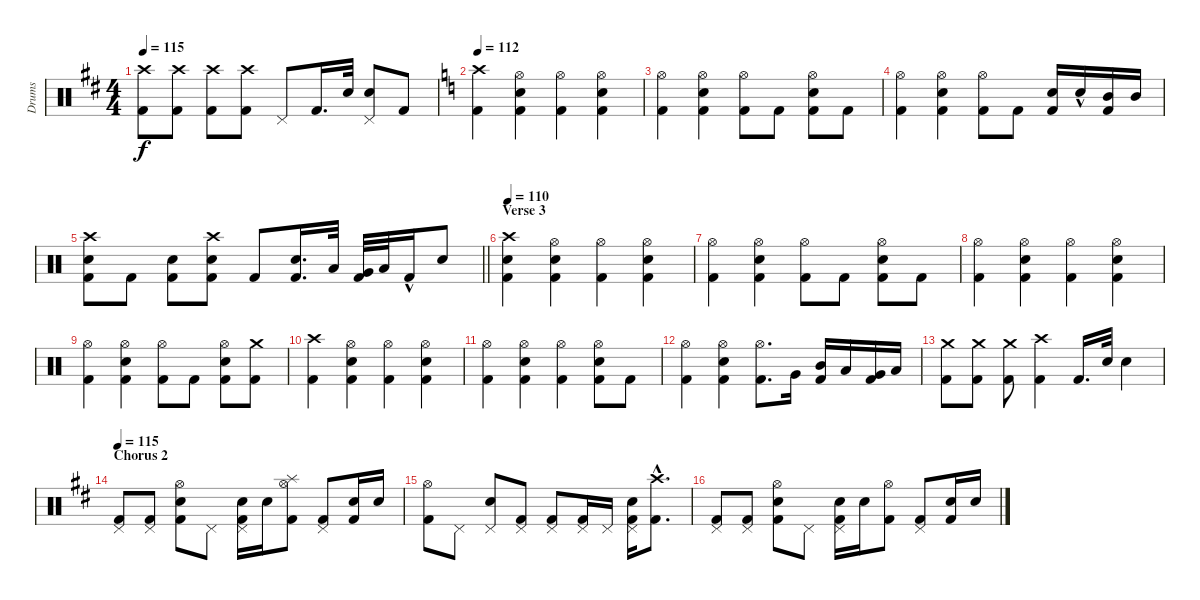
\track ("Drums" "Drums") {instrument percussion}
\staff {score}
\articulation defaults
\ts (4 4)
\tempo 115
\clef neutral
\ks d
("Crash high (hit)" "Kick (hit) 2").8{dy f} ("Kick (hit) 2" "Crash high (hit)").8 ("Kick (hit) 2" "Crash high (hit)").8 ("Kick (hit) 2" "Crash high (hit)").8 "Pedal Hi-Hat (hit)".8 "Kick (hit) 2".16{d} "Snare (hit) 2".32 ("Pedal Hi-Hat (hit)" "Snare (hit) 2").8 "Kick (hit) 2".8 |
\tempo 112
\ks c
("Kick (hit) 2" "Crash high (hit)").4 ("Snare (hit) 2" "Hi-Hat (open)" "Kick (hit) 2").4 ("Hi-Hat (open)" "Kick (hit) 2").4 ("Snare (hit) 2" "Hi-Hat (open)" "Kick (hit) 2").4 |
("Hi-Hat (open)" "Kick (hit) 2").4 ("Hi-Hat (open)" "Snare (hit) 2" "Kick (hit) 2").4 ("Hi-Hat (open)" "Kick (hit) 2").8 "Kick (hit) 2".8 ("Snare (hit) 2" "Hi-Hat (open)" "Kick (hit) 2").8 "Kick (hit) 2".8 |
("Hi-Hat (open)" "Kick (hit) 2").4 ("Hi-Hat (open)" "Kick (hit) 2" "Snare (hit) 2").4 ("Hi-Hat (open)" "Kick (hit) 2").8 "Kick (hit) 2".8 ("Kick (hit) 2" "Snare (hit) 2").16 "Snare (hit) 2"{hac}.16 ("Kick (hit) 2" "Mid Tom (hit)").16 "Mid Tom (hit)".16 |
\barLineRight lightlight
("Snare (hit) 2" "Crash high (hit)" "Kick (hit) 2").8 "Kick (hit) 2".8 ("Snare (hit) 2" "Kick (hit) 2").8 ("Snare (hit) 2" "Kick (hit) 2" "Crash high (hit)").8 "Kick (hit) 2".8 ("Snare (hit) 2" "Kick (hit) 2").16{d} "Low Tom (hit)".32 ("Kick (hit) 2" "Very Low Tom (hit)").32 "Low Floor Tom (hit)".32 "Kick (hit) 2"{hac}.16 "Snare (hit) 2".8 |
\section ("" "Verse 3")
\tempo 110
("Snare (hit) 2" "Crash high (hit)" "Kick (hit) 2").4 ("Snare (hit) 2" "Hi-Hat (open)" "Kick (hit) 2").4 ("Hi-Hat (open)" "Kick (hit) 2").4 ("Snare (hit) 2" "Hi-Hat (open)" "Kick (hit) 2").4 |
("Hi-Hat (open)" "Kick (hit) 2").4 ("Snare (hit) 2" "Hi-Hat (open)" "Kick (hit) 2").4 ("Hi-Hat (open)" "Kick (hit) 2").8 "Kick (hit) 2".8 ("Snare (hit) 2" "Hi-Hat (open)" "Kick (hit) 2").8 "Kick (hit) 2".8 |
("Hi-Hat (open)" "Kick (hit) 2").4 ("Snare (hit) 2" "Hi-Hat (open)" "Kick (hit) 2").4 ("Hi-Hat (open)" "Kick (hit) 2").4 ("Snare (hit) 2" "Hi-Hat (open)" "Kick (hit) 2").4 |
("Hi-Hat (open)" "Kick (hit) 2").4 ("Snare (hit) 2" "Hi-Hat (open)" "Kick (hit) 2").4 ("Hi-Hat (open)" "Kick (hit) 2").8 "Kick (hit) 2".8 ("Snare (hit) 2" "Hi-Hat (open)" "Kick (hit) 2").8 ("Kick (hit) 2" "Crash medium (hit)").8 |
("Kick (hit) 2" "Crash high (hit)").4 ("Hi-Hat (open)" "Kick (hit) 2" "Snare (hit) 2").4 ("Hi-Hat (open)" "Kick (hit) 2").4 ("Snare (hit) 2" "Hi-Hat (open)" "Kick (hit) 2").4 |
("Hi-Hat (open)" "Kick (hit) 2").4 ("Snare (hit) 2" "Hi-Hat (open)" "Kick (hit) 2").4 ("Hi-Hat (open)" "Kick (hit) 2").4 ("Snare (hit) 2" "Kick (hit) 2" "Hi-Hat (open)").8 "Kick (hit) 2".8 |
("Hi-Hat (open)" "Kick (hit) 2").4 ("Snare (hit) 2" "Kick (hit) 2" "Hi-Hat (open)").4 ("Kick (hit) 2" "Hi-Hat (open)").8{d} "Very Low Tom (hit)".16 ("Kick (hit) 2" "Mid Tom (hit)").16 "Low Tom (hit)".16 ("Kick (hit) 2" "Very Low Tom (hit)").16 "Low Floor Tom (hit)".16 |
("Kick (hit) 2" "Crash medium (hit)").8 ("Kick (hit) 2" "Crash medium (hit)").8 ("Crash medium (hit)" "Kick (hit) 2").8 ("Kick (hit) 2" "Crash high (hit)").4 "Kick (hit) 2".16{d} "Snare (hit) 2".32 "Snare (hit) 2".4 |
\section ("" "Chorus 2")
\tempo 115
\ks d
("Pedal Hi-Hat (hit)" "Kick (hit) 2").8 ("Kick (hit) 2" "Pedal Hi-Hat (hit)").8 ("Snare (hit) 2" "Hi-Hat (open)" "Kick (hit) 2").8 "Pedal Hi-Hat (hit)".8 ("Kick (hit) 2" "Snare (hit) 2" "Pedal Hi-Hat (hit)").16 "Snare (hit) 2".16 ("Kick (hit) 2" "Splash (hit)" "Hi-Hat (open)").8 ("Kick (hit) 2" "Pedal Hi-Hat (hit)").8 ("Kick (hit) 2" "Snare (hit) 2").16 "Snare (hit) 2".16 |
("Hi-Hat (open)" "Kick (hit) 2").8 "Pedal Hi-Hat (hit)".8 ("Snare (hit) 2" "Pedal Hi-Hat (hit)").8 ("Kick (hit) 2" "Pedal Hi-Hat (hit)").8 ("Kick (hit) 2" "Pedal Hi-Hat (hit)").8 ("Pedal Hi-Hat (hit)" "Kick (hit) 2").16 "Pedal Hi-Hat (hit)".16 ("Pedal Hi-Hat (hit)" "Kick (hit) 2" "Snare (hit) 2").16 ("Kick (hit) 2"{hac} "Crash high (hit)").8{d} |
("Pedal Hi-Hat (hit)" "Kick (hit) 2").8 ("Kick (hit) 2" "Pedal Hi-Hat (hit)").8 ("Snare (hit) 2" "Hi-Hat (open)" "Kick (hit) 2").8 "Pedal Hi-Hat (hit)".8 ("Kick (hit) 2" "Snare (hit) 2" "Pedal Hi-Hat (hit)").16 "Snare (hit) 2".16 ("Kick (hit) 2" "Hi-Hat (open)").8 ("Kick (hit) 2" "Pedal Hi-Hat (hit)").8 ("Kick (hit) 2" "Snare (hit) 2").16 "Snare (hit) 2".16
